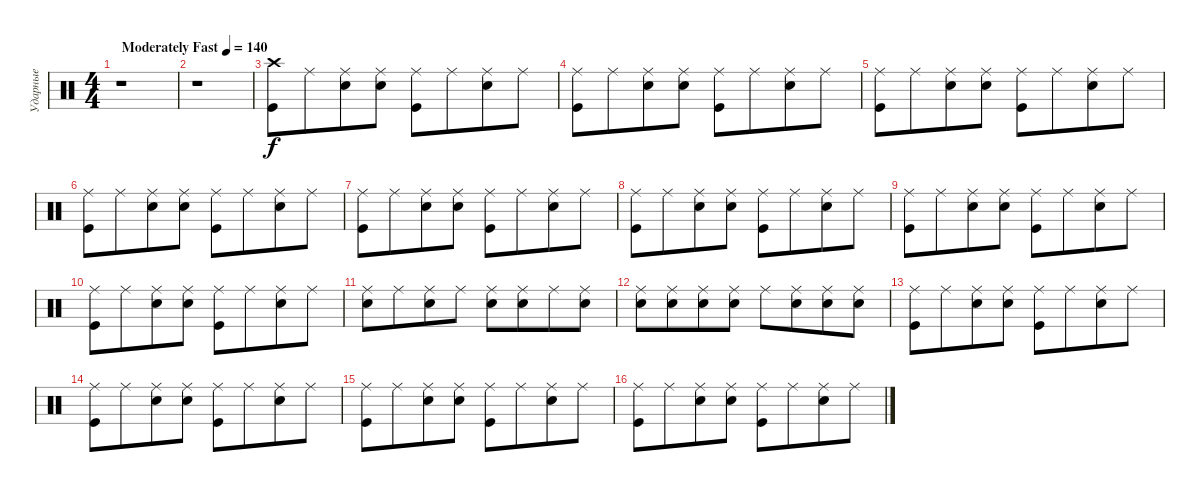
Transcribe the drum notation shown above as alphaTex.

\track ("Ударные" "Ударные") {instrument percussion}
\staff {score}
\articulation defaults
\ts (4 4)
\tempo (140 "Moderately Fast")
\clef neutral
\ks aminor
r.1{dy f} |
r.1 |
("Kick (hit)" "Crash high (hit)").8 "Ride (middle)".8{beam merge} ("Snare (hit) 2" "Ride (middle)").8 ("Ride (middle)" "Snare (hit) 2").8 ("Kick (hit)" "Ride (middle)").8 "Ride (middle)".8{beam merge} ("Snare (hit) 2" "Ride (middle)").8 "Ride (middle)".8 |
("Kick (hit)" "Ride (middle)").8 "Ride (middle)".8{beam merge} ("Snare (hit) 2" "Ride (middle)").8 ("Ride (middle)" "Snare (hit) 2").8 ("Kick (hit)" "Ride (middle)").8 "Ride (middle)".8{beam merge} ("Snare (hit) 2" "Ride (middle)").8 "Ride (middle)".8 |
("Kick (hit)" "Ride (middle)").8 "Ride (middle)".8{beam merge} ("Snare (hit) 2" "Ride (middle)").8 ("Ride (middle)" "Snare (hit) 2").8 ("Kick (hit)" "Ride (middle)").8 "Ride (middle)".8{beam merge} ("Snare (hit) 2" "Ride (middle)").8 "Ride (middle)".8 |
("Kick (hit)" "Ride (middle)").8 "Ride (middle)".8{beam merge} ("Snare (hit) 2" "Ride (middle)").8 ("Ride (middle)" "Snare (hit) 2").8 ("Kick (hit)" "Ride (middle)").8 "Ride (middle)".8{beam merge} ("Snare (hit) 2" "Ride (middle)").8 "Ride (middle)".8 |
("Kick (hit)" "Ride (middle)").8 "Ride (middle)".8{beam merge} ("Snare (hit) 2" "Ride (middle)").8 ("Ride (middle)" "Snare (hit) 2").8 ("Kick (hit)" "Ride (middle)").8 "Ride (middle)".8{beam merge} ("Snare (hit) 2" "Ride (middle)").8 "Ride (middle)".8 |
("Kick (hit)" "Ride (middle)").8 "Ride (middle)".8{beam merge} ("Snare (hit) 2" "Ride (middle)").8 ("Ride (middle)" "Snare (hit) 2").8 ("Kick (hit)" "Ride (middle)").8 "Ride (middle)".8{beam merge} ("Snare (hit) 2" "Ride (middle)").8 "Ride (middle)".8 |
("Kick (hit)" "Ride (middle)").8 "Ride (middle)".8{beam merge} ("Snare (hit) 2" "Ride (middle)").8 ("Ride (middle)" "Snare (hit) 2").8 ("Kick (hit)" "Ride (middle)").8 "Ride (middle)".8{beam merge} ("Snare (hit) 2" "Ride (middle)").8 "Ride (middle)".8 |
("Kick (hit)" "Ride (middle)").8 "Ride (middle)".8{beam merge} ("Snare (hit) 2" "Ride (middle)").8 ("Ride (middle)" "Snare (hit) 2").8 ("Kick (hit)" "Ride (middle)").8 "Ride (middle)".8{beam merge} ("Snare (hit) 2" "Ride (middle)").8 "Ride (middle)".8 |
("Snare (hit) 2" "Ride (middle)").8 "Ride (middle)".8{beam merge} ("Snare (hit) 2" "Ride (middle)").8 "Ride (middle)".8 ("Ride (middle)" "Snare (hit) 2").8 ("Snare (hit) 2" "Ride (middle)").8{beam merge} "Ride (middle)".8 ("Snare (hit) 2" "Ride (middle)").8 |
("Snare (hit) 2" "Ride (middle)").8 ("Snare (hit) 2" "Ride (middle)").8{beam merge} ("Snare (hit) 2" "Ride (middle)").8 ("Snare (hit) 2" "Ride (middle)").8 "Ride (middle)".8 ("Snare (hit) 2" "Ride (middle)").8{beam merge} ("Snare (hit) 2" "Ride (middle)").8 ("Snare (hit) 2" "Ride (middle)").8 |
("Kick (hit)" "Ride (middle)").8 "Ride (middle)".8{beam merge} ("Snare (hit) 2" "Ride (middle)").8 ("Ride (middle)" "Snare (hit) 2").8 ("Kick (hit)" "Ride (middle)").8 "Ride (middle)".8{beam merge} ("Snare (hit) 2" "Ride (middle)").8 "Ride (middle)".8 |
("Kick (hit)" "Ride (middle)").8 "Ride (middle)".8{beam merge} ("Snare (hit) 2" "Ride (middle)").8 ("Ride (middle)" "Snare (hit) 2").8 ("Kick (hit)" "Ride (middle)").8 "Ride (middle)".8{beam merge} ("Snare (hit) 2" "Ride (middle)").8 "Ride (middle)".8 |
("Kick (hit)" "Ride (middle)").8 "Ride (middle)".8{beam merge} ("Snare (hit) 2" "Ride (middle)").8 ("Ride (middle)" "Snare (hit) 2").8 ("Kick (hit)" "Ride (middle)").8 "Ride (middle)".8{beam merge} ("Snare (hit) 2" "Ride (middle)").8 "Ride (middle)".8 |
("Kick (hit)" "Ride (middle)").8 "Ride (middle)".8{beam merge} ("Snare (hit) 2" "Ride (middle)").8 ("Ride (middle)" "Snare (hit) 2").8 ("Kick (hit)" "Ride (middle)").8 "Ride (middle)".8{beam merge} ("Snare (hit) 2" "Ride (middle)").8 "Ride (middle)".8
